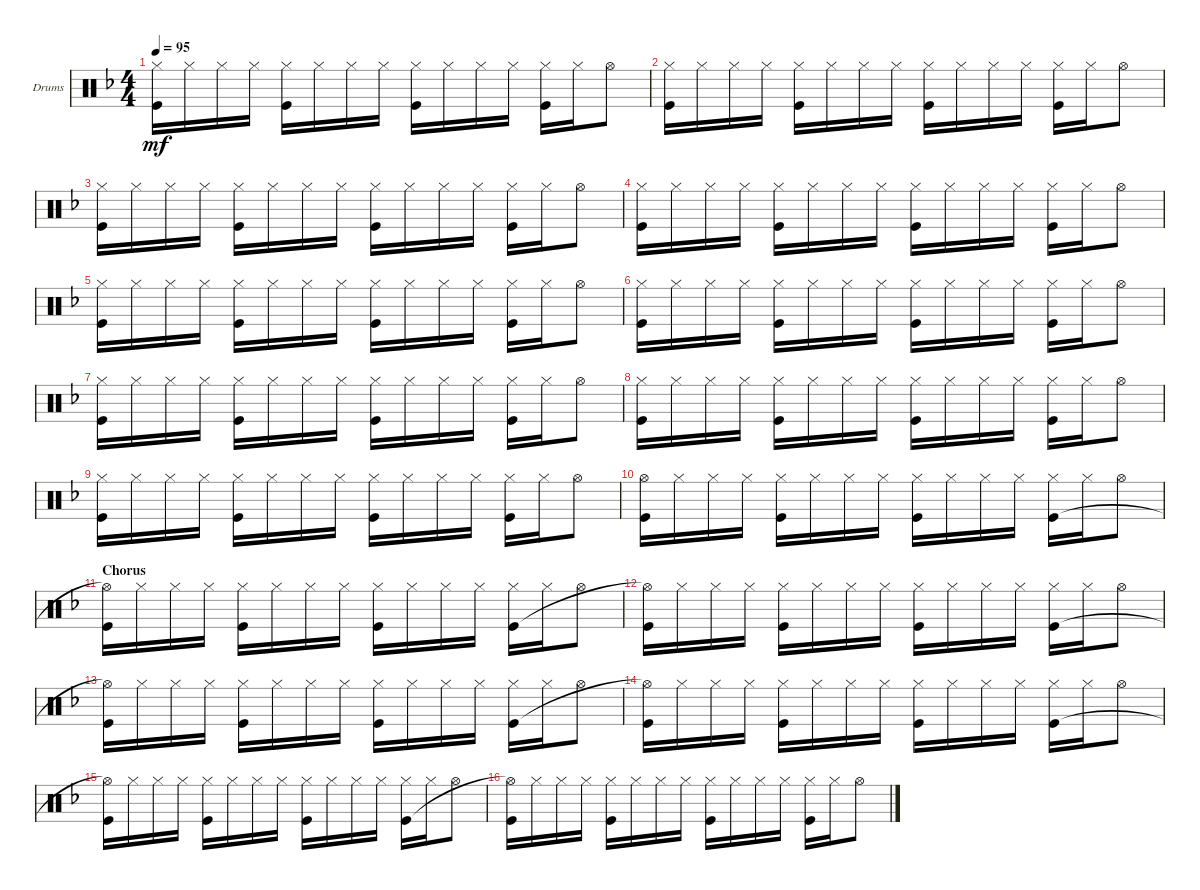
\defaultSystemsLayout 4
\bracketExtendMode groupsimilarinstruments
\firstSystemTrackNameOrientation horizontal
\otherSystemsTrackNameOrientation horizontal
\track ("Drumkit" "Drums") {solo instrument percussion}
\staff {score}
\articulation defaults
\ts (4 4)
\tempo 95
\clef neutral
\ks f
("Kick (hit)" "Hi-Hat (closed)").16{dy mf} "Hi-Hat (closed)".16 "Hi-Hat (closed)".16 "Hi-Hat (closed)".16 ("Hi-Hat (closed)" "Kick (hit)").16 "Hi-Hat (closed)".16 "Hi-Hat (closed)".16 "Hi-Hat (closed)".16 ("Hi-Hat (closed)" "Kick (hit)").16 "Hi-Hat (closed)".16 "Hi-Hat (closed)".16 "Hi-Hat (closed)".16 ("Hi-Hat (closed)" "Kick (hit)").16 "Hi-Hat (closed)".16 "Hi-Hat (open)".8 |
("Kick (hit)" "Hi-Hat (closed)").16 "Hi-Hat (closed)".16 "Hi-Hat (closed)".16 "Hi-Hat (closed)".16 ("Hi-Hat (closed)" "Kick (hit)").16 "Hi-Hat (closed)".16 "Hi-Hat (closed)".16 "Hi-Hat (closed)".16 ("Hi-Hat (closed)" "Kick (hit)").16 "Hi-Hat (closed)".16 "Hi-Hat (closed)".16 "Hi-Hat (closed)".16 ("Hi-Hat (closed)" "Kick (hit)").16 "Hi-Hat (closed)".16 "Hi-Hat (open)".8 |
("Kick (hit)" "Hi-Hat (closed)").16 "Hi-Hat (closed)".16 "Hi-Hat (closed)".16 "Hi-Hat (closed)".16 ("Hi-Hat (closed)" "Kick (hit)").16 "Hi-Hat (closed)".16 "Hi-Hat (closed)".16 "Hi-Hat (closed)".16 ("Hi-Hat (closed)" "Kick (hit)").16 "Hi-Hat (closed)".16 "Hi-Hat (closed)".16 "Hi-Hat (closed)".16 ("Hi-Hat (closed)" "Kick (hit)").16 "Hi-Hat (closed)".16 "Hi-Hat (open)".8 |
("Kick (hit)" "Hi-Hat (closed)").16 "Hi-Hat (closed)".16 "Hi-Hat (closed)".16 "Hi-Hat (closed)".16 ("Hi-Hat (closed)" "Kick (hit)").16 "Hi-Hat (closed)".16 "Hi-Hat (closed)".16 "Hi-Hat (closed)".16 ("Hi-Hat (closed)" "Kick (hit)").16 "Hi-Hat (closed)".16 "Hi-Hat (closed)".16 "Hi-Hat (closed)".16 ("Hi-Hat (closed)" "Kick (hit)").16 "Hi-Hat (closed)".16 "Hi-Hat (open)".8 |
("Kick (hit)" "Hi-Hat (closed)").16 "Hi-Hat (closed)".16 "Hi-Hat (closed)".16 "Hi-Hat (closed)".16 ("Hi-Hat (closed)" "Kick (hit)").16 "Hi-Hat (closed)".16 "Hi-Hat (closed)".16 "Hi-Hat (closed)".16 ("Hi-Hat (closed)" "Kick (hit)").16 "Hi-Hat (closed)".16 "Hi-Hat (closed)".16 "Hi-Hat (closed)".16 ("Hi-Hat (closed)" "Kick (hit)").16 "Hi-Hat (closed)".16 "Hi-Hat (open)".8 |
("Kick (hit)" "Hi-Hat (closed)").16 "Hi-Hat (closed)".16 "Hi-Hat (closed)".16 "Hi-Hat (closed)".16 ("Hi-Hat (closed)" "Kick (hit)").16 "Hi-Hat (closed)".16 "Hi-Hat (closed)".16 "Hi-Hat (closed)".16 ("Hi-Hat (closed)" "Kick (hit)").16 "Hi-Hat (closed)".16 "Hi-Hat (closed)".16 "Hi-Hat (closed)".16 ("Hi-Hat (closed)" "Kick (hit)").16 "Hi-Hat (closed)".16 "Hi-Hat (open)".8 |
("Kick (hit)" "Hi-Hat (closed)").16 "Hi-Hat (closed)".16 "Hi-Hat (closed)".16 "Hi-Hat (closed)".16 ("Hi-Hat (closed)" "Kick (hit)").16 "Hi-Hat (closed)".16 "Hi-Hat (closed)".16 "Hi-Hat (closed)".16 ("Hi-Hat (closed)" "Kick (hit)").16 "Hi-Hat (closed)".16 "Hi-Hat (closed)".16 "Hi-Hat (closed)".16 ("Hi-Hat (closed)" "Kick (hit)").16 "Hi-Hat (closed)".16 "Hi-Hat (open)".8 |
("Kick (hit)" "Hi-Hat (closed)").16 "Hi-Hat (closed)".16 "Hi-Hat (closed)".16 "Hi-Hat (closed)".16 ("Hi-Hat (closed)" "Kick (hit)").16 "Hi-Hat (closed)".16 "Hi-Hat (closed)".16 "Hi-Hat (closed)".16 ("Hi-Hat (closed)" "Kick (hit)").16 "Hi-Hat (closed)".16 "Hi-Hat (closed)".16 "Hi-Hat (closed)".16 ("Hi-Hat (closed)" "Kick (hit)").16 "Hi-Hat (closed)".16 "Hi-Hat (open)".8 |
("Kick (hit)" "Hi-Hat (closed)").16 "Hi-Hat (closed)".16 "Hi-Hat (closed)".16 "Hi-Hat (closed)".16 ("Hi-Hat (closed)" "Kick (hit)").16 "Hi-Hat (closed)".16 "Hi-Hat (closed)".16 "Hi-Hat (closed)".16 ("Hi-Hat (closed)" "Kick (hit)").16 "Hi-Hat (closed)".16 "Hi-Hat (closed)".16 "Hi-Hat (closed)".16 ("Hi-Hat (closed)" "Kick (hit)").16 "Hi-Hat (closed)".16 "Hi-Hat (open)".8 |
("Kick (hit)" "Hi-Hat (open)").16 "Hi-Hat (closed)".16 "Hi-Hat (closed)".16 "Hi-Hat (closed)".16 ("Hi-Hat (closed)" "Kick (hit)").16 "Hi-Hat (closed)".16 "Hi-Hat (closed)".16 "Hi-Hat (closed)".16 ("Hi-Hat (closed)" "Kick (hit)").16 "Hi-Hat (closed)".16 "Hi-Hat (closed)".16 "Hi-Hat (closed)".16 ("Hi-Hat (closed)" "Kick (hit)").16 "Hi-Hat (closed)".16 "Hi-Hat (open)".8 |
\section ("" "Chorus")
("Kick (hit)" "Hi-Hat (open)"{t}).16 "Hi-Hat (closed)".16 "Hi-Hat (closed)".16 "Hi-Hat (closed)".16 ("Hi-Hat (closed)" "Kick (hit)").16 "Hi-Hat (closed)".16 "Hi-Hat (closed)".16 "Hi-Hat (closed)".16 ("Hi-Hat (closed)" "Kick (hit)").16 "Hi-Hat (closed)".16 "Hi-Hat (closed)".16 "Hi-Hat (closed)".16 ("Hi-Hat (closed)" "Kick (hit)").16 "Hi-Hat (closed)".16 "Hi-Hat (open)".8 |
("Kick (hit)" "Hi-Hat (open)"{t}).16 "Hi-Hat (closed)".16 "Hi-Hat (closed)".16 "Hi-Hat (closed)".16 ("Hi-Hat (closed)" "Kick (hit)").16 "Hi-Hat (closed)".16 "Hi-Hat (closed)".16 "Hi-Hat (closed)".16 ("Hi-Hat (closed)" "Kick (hit)").16 "Hi-Hat (closed)".16 "Hi-Hat (closed)".16 "Hi-Hat (closed)".16 ("Hi-Hat (closed)" "Kick (hit)").16 "Hi-Hat (closed)".16 "Hi-Hat (open)".8 |
("Kick (hit)" "Hi-Hat (open)"{t}).16 "Hi-Hat (closed)".16 "Hi-Hat (closed)".16 "Hi-Hat (closed)".16 ("Hi-Hat (closed)" "Kick (hit)").16 "Hi-Hat (closed)".16 "Hi-Hat (closed)".16 "Hi-Hat (closed)".16 ("Hi-Hat (closed)" "Kick (hit)").16 "Hi-Hat (closed)".16 "Hi-Hat (closed)".16 "Hi-Hat (closed)".16 ("Hi-Hat (closed)" "Kick (hit)").16 "Hi-Hat (closed)".16 "Hi-Hat (open)".8 |
("Kick (hit)" "Hi-Hat (open)"{t}).16 "Hi-Hat (closed)".16 "Hi-Hat (closed)".16 "Hi-Hat (closed)".16 ("Hi-Hat (closed)" "Kick (hit)").16 "Hi-Hat (closed)".16 "Hi-Hat (closed)".16 "Hi-Hat (closed)".16 ("Hi-Hat (closed)" "Kick (hit)").16 "Hi-Hat (closed)".16 "Hi-Hat (closed)".16 "Hi-Hat (closed)".16 ("Hi-Hat (closed)" "Kick (hit)").16 "Hi-Hat (closed)".16 "Hi-Hat (open)".8 |
("Kick (hit)" "Hi-Hat (open)"{t}).16 "Hi-Hat (closed)".16 "Hi-Hat (closed)".16 "Hi-Hat (closed)".16 ("Hi-Hat (closed)" "Kick (hit)").16 "Hi-Hat (closed)".16 "Hi-Hat (closed)".16 "Hi-Hat (closed)".16 ("Hi-Hat (closed)" "Kick (hit)").16 "Hi-Hat (closed)".16 "Hi-Hat (closed)".16 "Hi-Hat (closed)".16 ("Hi-Hat (closed)" "Kick (hit)").16 "Hi-Hat (closed)".16 "Hi-Hat (open)".8 |
("Kick (hit)" "Hi-Hat (open)"{t}).16 "Hi-Hat (closed)".16 "Hi-Hat (closed)".16 "Hi-Hat (closed)".16 ("Hi-Hat (closed)" "Kick (hit)").16 "Hi-Hat (closed)".16 "Hi-Hat (closed)".16 "Hi-Hat (closed)".16 ("Hi-Hat (closed)" "Kick (hit)").16 "Hi-Hat (closed)".16 "Hi-Hat (closed)".16 "Hi-Hat (closed)".16 ("Hi-Hat (closed)" "Kick (hit)").16 "Hi-Hat (closed)".16 "Hi-Hat (open)".8
